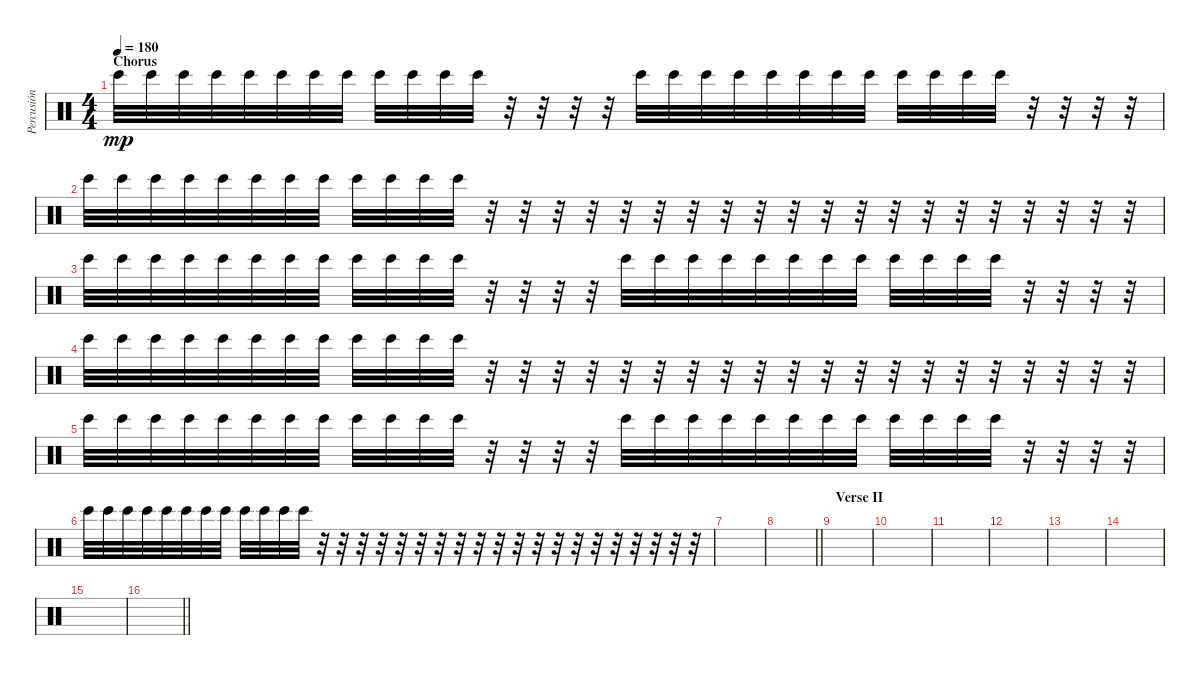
\track ("Percusión" "Percusión") {instrument percussion}
\staff {score}
\articulation defaults
\ts (4 4)
\section ("" "Chorus")
\tempo 180
\clef neutral
\ks c "Bongo High (hit)".32{dy mp} "Bongo High (hit)".32 "Bongo High (hit)".32 "Bongo High (hit)".32 "Bongo High (hit)".32 "Bongo High (hit)".32 "Bongo High (hit)".32 "Bongo High (hit)".32 "Bongo High (hit)".32 "Bongo High (hit)".32 "Bongo High (hit)".32 "Bongo High (hit)".32
r.32 r.32 r.32 r.32 "Bongo High (hit)".32 "Bongo High (hit)".32 "Bongo High (hit)".32 "Bongo High (hit)".32 "Bongo High (hit)".32 "Bongo High (hit)".32 "Bongo High (hit)".32 "Bongo High (hit)".32 "Bongo High (hit)".32 "Bongo High (hit)".32 "Bongo High (hit)".32 "Bongo High (hit)".32 r.32 r.32 r.32 r.32 |
"Bongo High (hit)".32 "Bongo High (hit)".32 "Bongo High (hit)".32 "Bongo High (hit)".32 "Bongo High (hit)".32 "Bongo High (hit)".32 "Bongo High (hit)".32 "Bongo High (hit)".32 "Bongo High (hit)".32 "Bongo High (hit)".32 "Bongo High (hit)".32 "Bongo High (hit)".32 r.32 r.32 r.32 r.32 r.32 r.32 r.32 r.32 r.32 r.32 r.32 r.32 r.32 r.32 r.32 r.32 r.32 r.32 r.32 r.32 |
"Bongo High (hit)".32 "Bongo High (hit)".32 "Bongo High (hit)".32 "Bongo High (hit)".32 "Bongo High (hit)".32 "Bongo High (hit)".32 "Bongo High (hit)".32 "Bongo High (hit)".32 "Bongo High (hit)".32 "Bongo High (hit)".32 "Bongo High (hit)".32 "Bongo High (hit)".32 r.32 r.32 r.32 r.32 "Bongo High (hit)".32 "Bongo High (hit)".32 "Bongo High (hit)".32 "Bongo High (hit)".32 "Bongo High (hit)".32 "Bongo High (hit)".32 "Bongo High (hit)".32 "Bongo High (hit)".32 "Bongo High (hit)".32 "Bongo High (hit)".32 "Bongo High (hit)".32 "Bongo High (hit)".32 r.32 r.32 r.32 r.32 |
"Bongo High (hit)".32 "Bongo High (hit)".32 "Bongo High (hit)".32 "Bongo High (hit)".32 "Bongo High (hit)".32 "Bongo High (hit)".32 "Bongo High (hit)".32 "Bongo High (hit)".32 "Bongo High (hit)".32 "Bongo High (hit)".32 "Bongo High (hit)".32 "Bongo High (hit)".32 r.32 r.32 r.32 r.32 r.32 r.32 r.32 r.32 r.32 r.32 r.32 r.32 r.32 r.32 r.32 r.32 r.32 r.32 r.32 r.32 |
"Bongo High (hit)".32 "Bongo High (hit)".32 "Bongo High (hit)".32 "Bongo High (hit)".32 "Bongo High (hit)".32 "Bongo High (hit)".32 "Bongo High (hit)".32 "Bongo High (hit)".32 "Bongo High (hit)".32 "Bongo High (hit)".32 "Bongo High (hit)".32 "Bongo High (hit)".32 r.32 r.32 r.32 r.32 "Bongo High (hit)".32 "Bongo High (hit)".32 "Bongo High (hit)".32 "Bongo High (hit)".32 "Bongo High (hit)".32 "Bongo High (hit)".32 "Bongo High (hit)".32 "Bongo High (hit)".32 "Bongo High (hit)".32 "Bongo High (hit)".32 "Bongo High (hit)".32 "Bongo High (hit)".32 r.32 r.32 r.32 r.32 |
"Bongo High (hit)".32 "Bongo High (hit)".32 "Bongo High (hit)".32 "Bongo High (hit)".32 "Bongo High (hit)".32 "Bongo High (hit)".32 "Bongo High (hit)".32 "Bongo High (hit)".32 "Bongo High (hit)".32 "Bongo High (hit)".32 "Bongo High (hit)".32 "Bongo High (hit)".32 r.32 r.32 r.32 r.32 r.32 r.32 r.32 r.32 r.32 r.32 r.32 r.32 r.32 r.32 r.32 r.32 r.32 r.32 r.32 r.32 |
|
\barLineRight lightlight
|
\section ("" "Verse II")
|
|
|
|
|
|
|
\barLineRight lightlight
